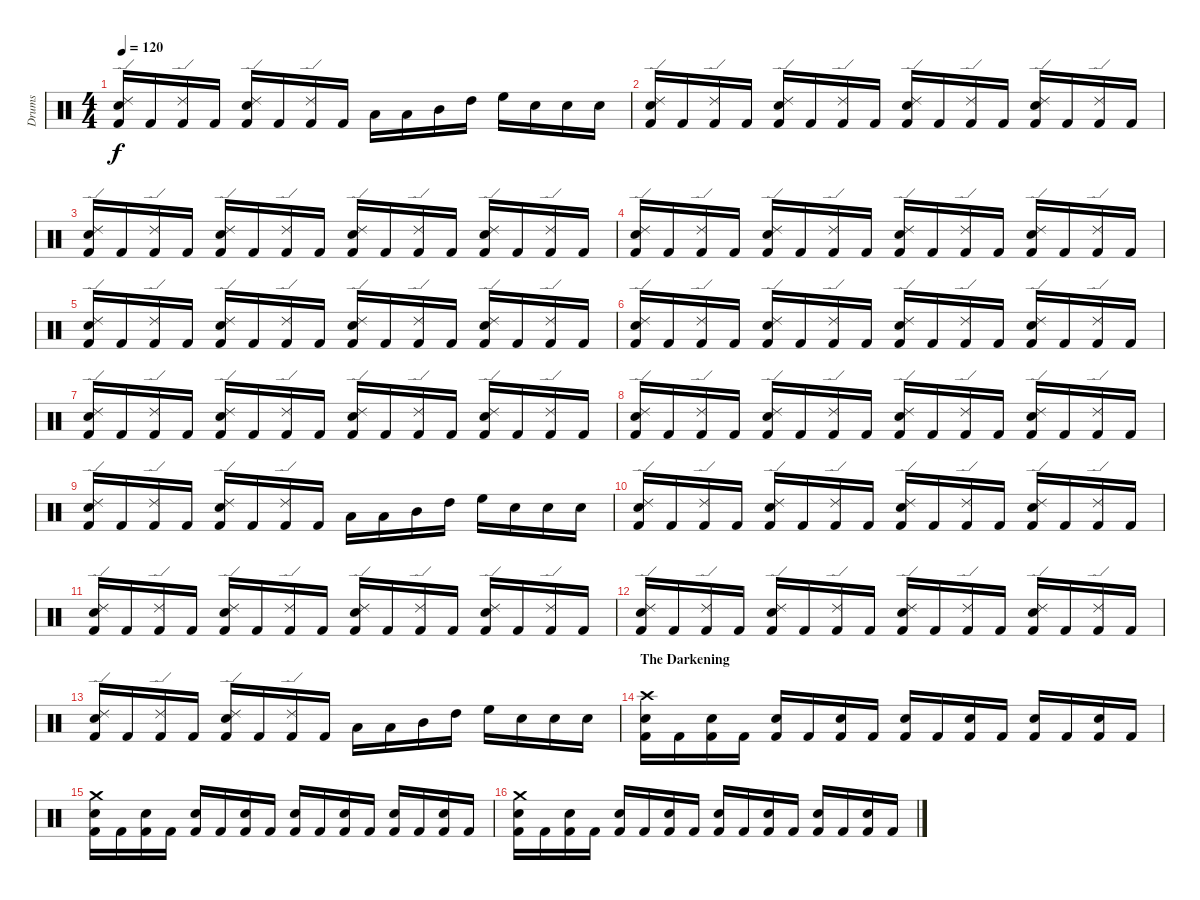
\track ("Drums" "Drums") {instrument percussion}
\staff {score}
\articulation defaults
\ts (4 4)
\tempo 120
\clef neutral
\ks c
("Kick (hit) 2" "Snare (hit) 2" "Ride (edge) 2").16{dy f} "Kick (hit) 2".16 ("Kick (hit) 2" "Ride (edge) 2").16 "Kick (hit) 2".16 ("Kick (hit) 2" "Snare (hit) 2" "Ride (edge) 2").16 "Kick (hit) 2".16 ("Kick (hit) 2" "Ride (edge) 2").16 "Kick (hit) 2".16 "Low Tom (hit)".16 "Low Tom (hit)".16 "Mid Tom (hit)".16 "High Tom (hit)".16 "High Floor Tom (hit)".16 "Snare (hit) 2".16 "Snare (hit) 2".16 "Snare (hit) 2".16 |
("Kick (hit) 2" "Snare (hit) 2" "Ride (edge) 2").16 "Kick (hit) 2".16 ("Kick (hit) 2" "Ride (edge) 2").16 "Kick (hit) 2".16 ("Kick (hit) 2" "Snare (hit) 2" "Ride (edge) 2").16 "Kick (hit) 2".16 ("Kick (hit) 2" "Ride (edge) 2").16 "Kick (hit) 2".16 ("Kick (hit) 2" "Snare (hit) 2" "Ride (edge) 2").16 "Kick (hit) 2".16 ("Kick (hit) 2" "Ride (edge) 2").16 "Kick (hit) 2".16 ("Kick (hit) 2" "Snare (hit) 2" "Ride (edge) 2").16 "Kick (hit) 2".16 ("Kick (hit) 2" "Ride (edge) 2").16 "Kick (hit) 2".16 |
("Kick (hit) 2" "Snare (hit) 2" "Ride (edge) 2").16 "Kick (hit) 2".16 ("Kick (hit) 2" "Ride (edge) 2").16 "Kick (hit) 2".16 ("Kick (hit) 2" "Snare (hit) 2" "Ride (edge) 2").16 "Kick (hit) 2".16 ("Kick (hit) 2" "Ride (edge) 2").16 "Kick (hit) 2".16 ("Kick (hit) 2" "Snare (hit) 2" "Ride (edge) 2").16 "Kick (hit) 2".16 ("Kick (hit) 2" "Ride (edge) 2").16 "Kick (hit) 2".16 ("Kick (hit) 2" "Snare (hit) 2" "Ride (edge) 2").16 "Kick (hit) 2".16 ("Kick (hit) 2" "Ride (edge) 2").16 "Kick (hit) 2".16 |
("Kick (hit) 2" "Snare (hit) 2" "Ride (edge) 2").16 "Kick (hit) 2".16 ("Kick (hit) 2" "Ride (edge) 2").16 "Kick (hit) 2".16 ("Kick (hit) 2" "Snare (hit) 2" "Ride (edge) 2").16 "Kick (hit) 2".16 ("Kick (hit) 2" "Ride (edge) 2").16 "Kick (hit) 2".16 ("Kick (hit) 2" "Snare (hit) 2" "Ride (edge) 2").16 "Kick (hit) 2".16 ("Kick (hit) 2" "Ride (edge) 2").16 "Kick (hit) 2".16 ("Kick (hit) 2" "Snare (hit) 2" "Ride (edge) 2").16 "Kick (hit) 2".16 ("Kick (hit) 2" "Ride (edge) 2").16 "Kick (hit) 2".16 |
("Kick (hit) 2" "Snare (hit) 2" "Ride (edge) 2").16 "Kick (hit) 2".16 ("Kick (hit) 2" "Ride (edge) 2").16 "Kick (hit) 2".16 ("Kick (hit) 2" "Snare (hit) 2" "Ride (edge) 2").16 "Kick (hit) 2".16 ("Kick (hit) 2" "Ride (edge) 2").16 "Kick (hit) 2".16 ("Kick (hit) 2" "Snare (hit) 2" "Ride (edge) 2").16 "Kick (hit) 2".16 ("Kick (hit) 2" "Ride (edge) 2").16 "Kick (hit) 2".16 ("Kick (hit) 2" "Snare (hit) 2" "Ride (edge) 2").16 "Kick (hit) 2".16 ("Kick (hit) 2" "Ride (edge) 2").16 "Kick (hit) 2".16 |
("Kick (hit) 2" "Snare (hit) 2" "Ride (edge) 2").16 "Kick (hit) 2".16 ("Kick (hit) 2" "Ride (edge) 2").16 "Kick (hit) 2".16 ("Kick (hit) 2" "Snare (hit) 2" "Ride (edge) 2").16 "Kick (hit) 2".16 ("Kick (hit) 2" "Ride (edge) 2").16 "Kick (hit) 2".16 ("Kick (hit) 2" "Snare (hit) 2" "Ride (edge) 2").16 "Kick (hit) 2".16 ("Kick (hit) 2" "Ride (edge) 2").16 "Kick (hit) 2".16 ("Kick (hit) 2" "Snare (hit) 2" "Ride (edge) 2").16 "Kick (hit) 2".16 ("Kick (hit) 2" "Ride (edge) 2").16 "Kick (hit) 2".16 |
("Kick (hit) 2" "Snare (hit) 2" "Ride (edge) 2").16 "Kick (hit) 2".16 ("Kick (hit) 2" "Ride (edge) 2").16 "Kick (hit) 2".16 ("Kick (hit) 2" "Snare (hit) 2" "Ride (edge) 2").16 "Kick (hit) 2".16 ("Kick (hit) 2" "Ride (edge) 2").16 "Kick (hit) 2".16 ("Kick (hit) 2" "Snare (hit) 2" "Ride (edge) 2").16 "Kick (hit) 2".16 ("Kick (hit) 2" "Ride (edge) 2").16 "Kick (hit) 2".16 ("Kick (hit) 2" "Snare (hit) 2" "Ride (edge) 2").16 "Kick (hit) 2".16 ("Kick (hit) 2" "Ride (edge) 2").16 "Kick (hit) 2".16 |
("Kick (hit) 2" "Snare (hit) 2" "Ride (edge) 2").16 "Kick (hit) 2".16 ("Kick (hit) 2" "Ride (edge) 2").16 "Kick (hit) 2".16 ("Kick (hit) 2" "Snare (hit) 2" "Ride (edge) 2").16 "Kick (hit) 2".16 ("Kick (hit) 2" "Ride (edge) 2").16 "Kick (hit) 2".16 ("Kick (hit) 2" "Snare (hit) 2" "Ride (edge) 2").16 "Kick (hit) 2".16 ("Kick (hit) 2" "Ride (edge) 2").16 "Kick (hit) 2".16 ("Kick (hit) 2" "Snare (hit) 2" "Ride (edge) 2").16 "Kick (hit) 2".16 ("Kick (hit) 2" "Ride (edge) 2").16 "Kick (hit) 2".16 |
("Kick (hit) 2" "Snare (hit) 2" "Ride (edge) 2").16 "Kick (hit) 2".16 ("Kick (hit) 2" "Ride (edge) 2").16 "Kick (hit) 2".16 ("Kick (hit) 2" "Snare (hit) 2" "Ride (edge) 2").16 "Kick (hit) 2".16 ("Kick (hit) 2" "Ride (edge) 2").16 "Kick (hit) 2".16 "Low Tom (hit)".16 "Low Tom (hit)".16 "Mid Tom (hit)".16 "High Tom (hit)".16 "High Floor Tom (hit)".16 "Snare (hit) 2".16 "Snare (hit) 2".16 "Snare (hit) 2".16 |
("Kick (hit) 2" "Snare (hit) 2" "Ride (edge) 2").16 "Kick (hit) 2".16 ("Kick (hit) 2" "Ride (edge) 2").16 "Kick (hit) 2".16 ("Kick (hit) 2" "Snare (hit) 2" "Ride (edge) 2").16 "Kick (hit) 2".16 ("Kick (hit) 2" "Ride (edge) 2").16 "Kick (hit) 2".16 ("Kick (hit) 2" "Snare (hit) 2" "Ride (edge) 2").16 "Kick (hit) 2".16 ("Kick (hit) 2" "Ride (edge) 2").16 "Kick (hit) 2".16 ("Kick (hit) 2" "Snare (hit) 2" "Ride (edge) 2").16 "Kick (hit) 2".16 ("Kick (hit) 2" "Ride (edge) 2").16 "Kick (hit) 2".16 |
("Kick (hit) 2" "Snare (hit) 2" "Ride (edge) 2").16 "Kick (hit) 2".16 ("Kick (hit) 2" "Ride (edge) 2").16 "Kick (hit) 2".16 ("Kick (hit) 2" "Snare (hit) 2" "Ride (edge) 2").16 "Kick (hit) 2".16 ("Kick (hit) 2" "Ride (edge) 2").16 "Kick (hit) 2".16 ("Kick (hit) 2" "Snare (hit) 2" "Ride (edge) 2").16 "Kick (hit) 2".16 ("Kick (hit) 2" "Ride (edge) 2").16 "Kick (hit) 2".16 ("Kick (hit) 2" "Snare (hit) 2" "Ride (edge) 2").16 "Kick (hit) 2".16 ("Kick (hit) 2" "Ride (edge) 2").16 "Kick (hit) 2".16 |
("Kick (hit) 2" "Snare (hit) 2" "Ride (edge) 2").16 "Kick (hit) 2".16 ("Kick (hit) 2" "Ride (edge) 2").16 "Kick (hit) 2".16 ("Kick (hit) 2" "Snare (hit) 2" "Ride (edge) 2").16 "Kick (hit) 2".16 ("Kick (hit) 2" "Ride (edge) 2").16 "Kick (hit) 2".16 ("Kick (hit) 2" "Snare (hit) 2" "Ride (edge) 2").16 "Kick (hit) 2".16 ("Kick (hit) 2" "Ride (edge) 2").16 "Kick (hit) 2".16 ("Kick (hit) 2" "Snare (hit) 2" "Ride (edge) 2").16 "Kick (hit) 2".16 ("Kick (hit) 2" "Ride (edge) 2").16 "Kick (hit) 2".16 |
("Kick (hit) 2" "Snare (hit) 2" "Ride (edge) 2").16 "Kick (hit) 2".16 ("Kick (hit) 2" "Ride (edge) 2").16 "Kick (hit) 2".16 ("Kick (hit) 2" "Snare (hit) 2" "Ride (edge) 2").16 "Kick (hit) 2".16 ("Kick (hit) 2" "Ride (edge) 2").16 "Kick (hit) 2".16 "Low Tom (hit)".16 "Low Tom (hit)".16 "Mid Tom (hit)".16 "High Tom (hit)".16 "High Floor Tom (hit)".16 "Snare (hit) 2".16 "Snare (hit) 2".16 "Snare (hit) 2".16 |
\section ("" "The Darkening")
("Kick (hit) 2" "Snare (hit) 2" "Crash high (hit)").16 "Kick (hit) 2".16 ("Kick (hit) 2" "Snare (hit) 2").16 "Kick (hit) 2".16 ("Kick (hit) 2" "Snare (hit) 2").16 "Kick (hit) 2".16 ("Kick (hit) 2" "Snare (hit) 2").16 "Kick (hit) 2".16 ("Kick (hit) 2" "Snare (hit) 2").16 "Kick (hit) 2".16 ("Kick (hit) 2" "Snare (hit) 2").16 "Kick (hit) 2".16 ("Kick (hit) 2" "Snare (hit) 2").16 "Kick (hit) 2".16 ("Kick (hit) 2" "Snare (hit) 2").16 "Kick (hit) 2".16 |
("Kick (hit) 2" "Snare (hit) 2" "Crash medium (hit)").16 "Kick (hit) 2".16 ("Kick (hit) 2" "Snare (hit) 2").16 "Kick (hit) 2".16 ("Kick (hit) 2" "Snare (hit) 2").16 "Kick (hit) 2".16 ("Kick (hit) 2" "Snare (hit) 2").16 "Kick (hit) 2".16 ("Kick (hit) 2" "Snare (hit) 2").16 "Kick (hit) 2".16 ("Kick (hit) 2" "Snare (hit) 2").16 "Kick (hit) 2".16 ("Kick (hit) 2" "Snare (hit) 2").16 "Kick (hit) 2".16 ("Kick (hit) 2" "Snare (hit) 2").16 "Kick (hit) 2".16 |
("Kick (hit) 2" "Snare (hit) 2" "Crash medium (hit)").16 "Kick (hit) 2".16 ("Kick (hit) 2" "Snare (hit) 2").16 "Kick (hit) 2".16 ("Kick (hit) 2" "Snare (hit) 2").16 "Kick (hit) 2".16 ("Kick (hit) 2" "Snare (hit) 2").16 "Kick (hit) 2".16 ("Kick (hit) 2" "Snare (hit) 2").16 "Kick (hit) 2".16 ("Kick (hit) 2" "Snare (hit) 2").16 "Kick (hit) 2".16 ("Kick (hit) 2" "Snare (hit) 2").16 "Kick (hit) 2".16 ("Kick (hit) 2" "Snare (hit) 2").16 "Kick (hit) 2".16
